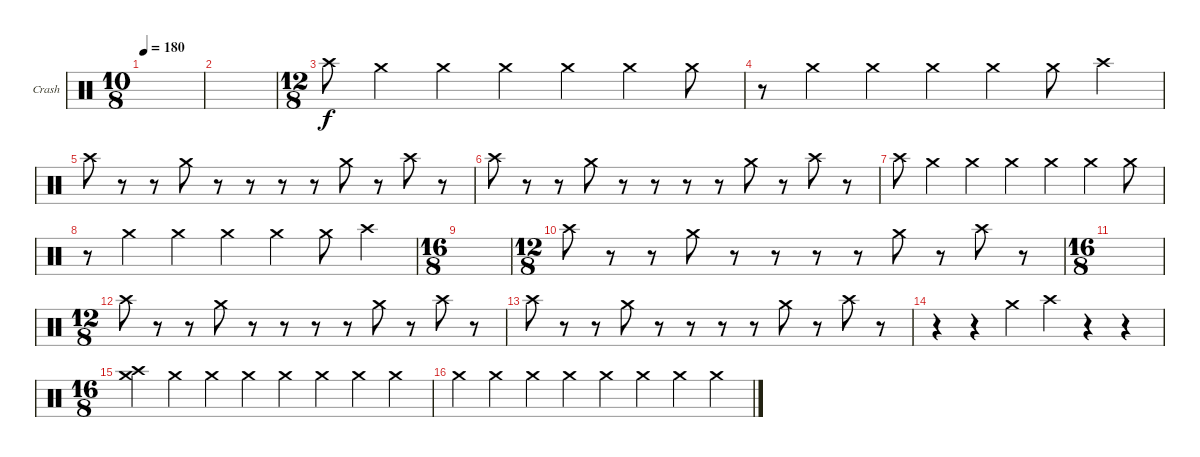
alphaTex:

\defaultSystemsLayout 4
\bracketExtendMode groupsimilarinstruments
\firstSystemTrackNameOrientation horizontal
\otherSystemsTrackNameOrientation horizontal
\track ("Crashes" "Crash") {instrument percussion}
\staff {score}
\articulation defaults
\ts (10 8)
\tempo 180
\clef neutral
\ks c
|
|
\ts (12 8)
"Crash high (hit)".8 "Crash medium (hit)".4 "Crash medium (hit)".4 "Crash medium (hit)".4 "Crash medium (hit)".4 "Crash medium (hit)".4 "Crash medium (hit)".8 |
r.8 "Crash medium (hit)".4 "Crash medium (hit)".4 "Crash medium (hit)".4 "Crash medium (hit)".4 "Crash medium (hit)".8 "Crash high (hit)".4 |
"Crash high (hit)".8 r.8 r.8 "Crash medium (hit)".8 r.8 r.8 r.8 r.8 "Crash medium (hit)".8 r.8 "Crash high (hit)".8 r.8 |
"Crash high (hit)".8 r.8 r.8 "Crash medium (hit)".8 r.8 r.8 r.8 r.8 "Crash medium (hit)".8 r.8 "Crash high (hit)".8 r.8 |
"Crash high (hit)".8 "Crash medium (hit)".4 "Crash medium (hit)".4 "Crash medium (hit)".4 "Crash medium (hit)".4 "Crash medium (hit)".4 "Crash medium (hit)".8 |
r.8 "Crash medium (hit)".4 "Crash medium (hit)".4 "Crash medium (hit)".4 "Crash medium (hit)".4 "Crash medium (hit)".8 "Crash high (hit)".4 |
\ts (16 8)
|
\ts (12 8)
"Crash high (hit)".8 r.8 r.8 "Crash medium (hit)".8 r.8 r.8 r.8 r.8 "Crash medium (hit)".8 r.8 "Crash high (hit)".8 r.8 |
\ts (16 8)
|
\ts (12 8)
"Crash high (hit)".8 r.8 r.8 "Crash medium (hit)".8 r.8 r.8 r.8 r.8 "Crash medium (hit)".8 r.8 "Crash high (hit)".8 r.8 |
"Crash high (hit)".8 r.8 r.8 "Crash medium (hit)".8 r.8 r.8 r.8 r.8 "Crash medium (hit)".8 r.8 "Crash high (hit)".8 r.8 |
r.4 r.4 "Crash medium (hit)".4 "Crash high (hit)".4 r.4 r.4 |
\ts (16 8)
("Crash high (hit)" "Crash medium (hit)").4 "Crash medium (hit)".4 "Crash medium (hit)".4 "Crash medium (hit)".4 "Crash medium (hit)".4 "Crash medium (hit)".4 "Crash medium (hit)".4 "Crash medium (hit)".4 |
"Crash medium (hit)".4 "Crash medium (hit)".4 "Crash medium (hit)".4 "Crash medium (hit)".4 "Crash medium (hit)".4 "Crash medium (hit)".4 "Crash medium (hit)".4 "Crash medium (hit)".4
